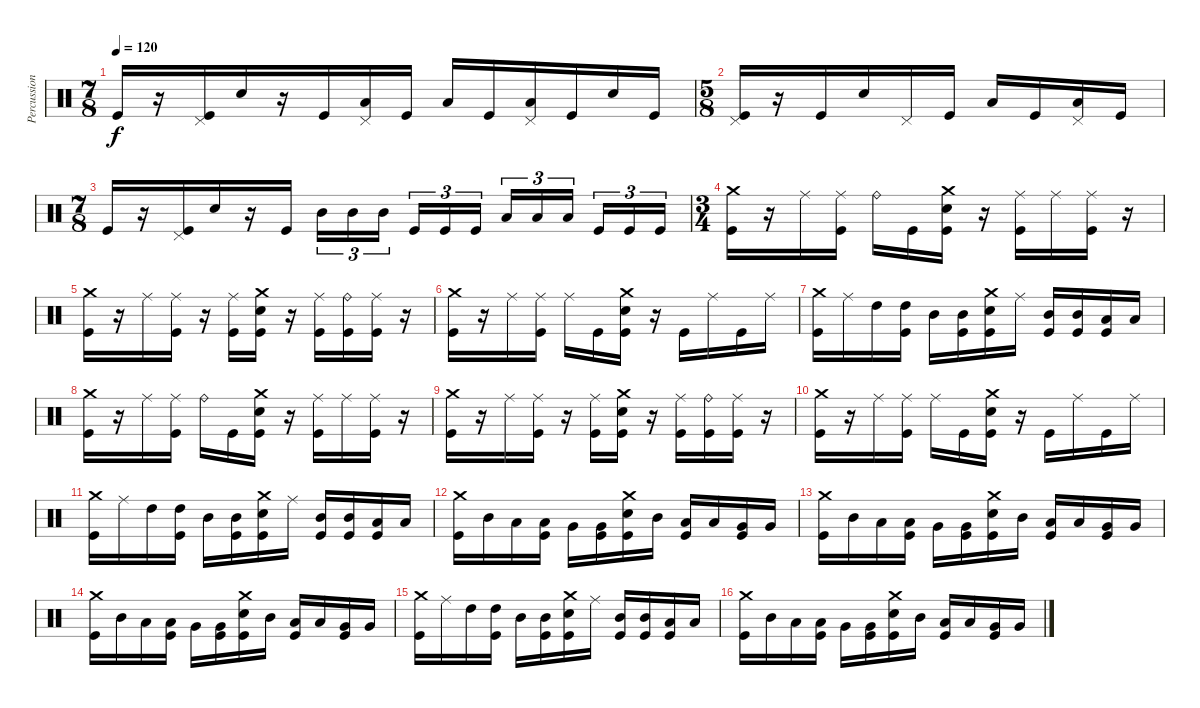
\track ("Percussion" "Percussion") {instrument percussion}
\staff {score}
\articulation defaults
\ts (7 8)
\tempo 120
\clef neutral
\ks c "Kick (hit)".16{dy f}
r.16 ("Pedal Hi-Hat (hit)" "Kick (hit)").16 "Electric Snare (hit)".16 r.16 "Kick (hit)".16 ("Pedal Hi-Hat (hit)" "Low Tom (hit)").16 "Kick (hit)".16 "Low Tom (hit)".16 "Kick (hit)".16 ("Pedal Hi-Hat (hit)" "Low Tom (hit)").16 "Kick (hit)".16 "Electric Snare (hit)".16 "Kick (hit)".16 |
\ts (5 8)
("Pedal Hi-Hat (hit)" "Kick (hit)").16 r.16 "Kick (hit)".16 "Electric Snare (hit)".16 "Pedal Hi-Hat (hit)".16 "Kick (hit)".16 "Low Tom (hit)".16 "Kick (hit)".16 ("Pedal Hi-Hat (hit)" "Low Tom (hit)").16 "Kick (hit)".16 |
\ts (7 8)
"Kick (hit)".16 r.16 ("Pedal Hi-Hat (hit)" "Kick (hit)").16 "Electric Snare (hit)".16 r.16 "Kick (hit)".16 "Mid Tom (hit)".16{tu (3 2)} "Mid Tom (hit)".16{tu (3 2)} "Mid Tom (hit)".16{tu (3 2)} "Kick (hit)".16{tu (3 2)} "Kick (hit)".16{tu (3 2)} "Kick (hit)".16{tu (3 2)} "Low Tom (hit)".16{tu (3 2)} "Low Tom (hit)".16{tu (3 2)} "Low Tom (hit)".16{tu (3 2)} "Kick (hit)".16{tu (3 2)} "Kick (hit)".16{tu (3 2)} "Kick (hit)".16{tu (3 2)} |
\ts (3 4)
("Crash medium (hit)" "Kick (hit)").16 r.16 "Ride (middle)".16 ("Ride (middle)" "Kick (hit)").16 "Ride (bell)".16 "Kick (hit)".16 ("Crash medium (hit)" "Electric Snare (hit)" "Kick (hit)").16 r.16 ("Ride (middle)" "Kick (hit)").16 "Ride (middle)".16 ("Ride (middle)" "Kick (hit)").16 r.16 |
("Crash medium (hit)" "Kick (hit)").16 r.16 "Ride (middle)".16 ("Ride (middle)" "Kick (hit)").16 r.16 ("Ride (middle)" "Kick (hit)").16 ("Crash medium (hit)" "Electric Snare (hit)" "Kick (hit)").16 r.16 ("Ride (middle)" "Kick (hit)").16 ("Ride (bell)" "Kick (hit)").16 ("Ride (middle)" "Kick (hit)").16 r.16 |
("Crash medium (hit)" "Kick (hit)").16 r.16 "Ride (middle)".16 ("Ride (middle)" "Kick (hit)").16 "Ride (middle)".16 "Kick (hit)".16 ("Crash medium (hit)" "Electric Snare (hit)" "Kick (hit)").16 r.16 "Kick (hit)".16 "Ride (middle)".16 "Kick (hit)".16 "Ride (middle)".16 |
("Crash medium (hit)" "Kick (hit)").16 "Ride (middle)".16 "High Tom (hit)".16 ("High Tom (hit)" "Kick (hit)").16 "Mid Tom (hit)".16 ("Mid Tom (hit)" "Kick (hit)").16 ("Crash medium (hit)" "Electric Snare (hit)" "Kick (hit)").16 "Ride (middle)".16 ("Mid Tom (hit)" "Kick (hit)").16 ("Mid Tom (hit)" "Kick (hit)").16 ("Low Tom (hit)" "Kick (hit)").16 "Low Tom (hit)".16 |
("Crash medium (hit)" "Kick (hit)").16 r.16 "Ride (middle)".16 ("Ride (middle)" "Kick (hit)").16 "Ride (bell)".16 "Kick (hit)".16 ("Crash medium (hit)" "Electric Snare (hit)" "Kick (hit)").16 r.16 ("Ride (middle)" "Kick (hit)").16 "Ride (middle)".16 ("Ride (middle)" "Kick (hit)").16 r.16 |
("Crash medium (hit)" "Kick (hit)").16 r.16 "Ride (middle)".16 ("Ride (middle)" "Kick (hit)").16 r.16 ("Ride (middle)" "Kick (hit)").16 ("Crash medium (hit)" "Electric Snare (hit)" "Kick (hit)").16 r.16 ("Ride (middle)" "Kick (hit)").16 ("Ride (bell)" "Kick (hit)").16 ("Ride (middle)" "Kick (hit)").16 r.16 |
("Crash medium (hit)" "Kick (hit)").16 r.16 "Ride (middle)".16 ("Ride (middle)" "Kick (hit)").16 "Ride (middle)".16 "Kick (hit)".16 ("Crash medium (hit)" "Electric Snare (hit)" "Kick (hit)").16 r.16 "Kick (hit)".16 "Ride (middle)".16 "Kick (hit)".16 "Ride (middle)".16 |
("Crash medium (hit)" "Kick (hit)").16 "Ride (middle)".16 "High Tom (hit)".16 ("High Tom (hit)" "Kick (hit)").16 "Mid Tom (hit)".16 ("Mid Tom (hit)" "Kick (hit)").16 ("Crash medium (hit)" "Electric Snare (hit)" "Kick (hit)").16 "Ride (middle)".16 ("Mid Tom (hit)" "Kick (hit)").16 ("Mid Tom (hit)" "Kick (hit)").16 ("Low Tom (hit)" "Kick (hit)").16 "Low Tom (hit)".16 |
("Crash medium (hit)" "Kick (hit)").16 "Mid Tom (hit)".16 "Low Tom (hit)".16 ("Low Tom (hit)" "Kick (hit)").16 "Very Low Tom (hit)".16 ("Very Low Tom (hit)" "Kick (hit)").16 ("Crash medium (hit)" "Electric Snare (hit)" "Kick (hit)").16 "Mid Tom (hit)".16 ("Low Tom (hit)" "Kick (hit)").16 "Low Tom (hit)".16 ("Very Low Tom (hit)" "Kick (hit)").16 "Very Low Tom (hit)".16 |
("Crash medium (hit)" "Kick (hit)").16 "Mid Tom (hit)".16 "Low Tom (hit)".16 ("Low Tom (hit)" "Kick (hit)").16 "Very Low Tom (hit)".16 ("Very Low Tom (hit)" "Kick (hit)").16 ("Crash medium (hit)" "Electric Snare (hit)" "Kick (hit)").16 "Mid Tom (hit)".16 ("Low Tom (hit)" "Kick (hit)").16 "Low Tom (hit)".16 ("Very Low Tom (hit)" "Kick (hit)").16 "Very Low Tom (hit)".16 |
("Crash medium (hit)" "Kick (hit)").16 "Mid Tom (hit)".16 "Low Tom (hit)".16 ("Low Tom (hit)" "Kick (hit)").16 "Very Low Tom (hit)".16 ("Very Low Tom (hit)" "Kick (hit)").16 ("Crash medium (hit)" "Electric Snare (hit)" "Kick (hit)").16 "Mid Tom (hit)".16 ("Low Tom (hit)" "Kick (hit)").16 "Low Tom (hit)".16 ("Very Low Tom (hit)" "Kick (hit)").16 "Very Low Tom (hit)".16 |
("Crash medium (hit)" "Kick (hit)").16 "Ride (middle)".16 "High Tom (hit)".16 ("High Tom (hit)" "Kick (hit)").16 "Mid Tom (hit)".16 ("Mid Tom (hit)" "Kick (hit)").16 ("Crash medium (hit)" "Electric Snare (hit)" "Kick (hit)").16 "Ride (middle)".16 ("Mid Tom (hit)" "Kick (hit)").16 ("Mid Tom (hit)" "Kick (hit)").16 ("Low Tom (hit)" "Kick (hit)").16 "Low Tom (hit)".16 |
("Crash medium (hit)" "Kick (hit)").16 "Mid Tom (hit)".16 "Low Tom (hit)".16 ("Low Tom (hit)" "Kick (hit)").16 "Very Low Tom (hit)".16 ("Very Low Tom (hit)" "Kick (hit)").16 ("Crash medium (hit)" "Electric Snare (hit)" "Kick (hit)").16 "Mid Tom (hit)".16 ("Low Tom (hit)" "Kick (hit)").16 "Low Tom (hit)".16 ("Very Low Tom (hit)" "Kick (hit)").16 "Very Low Tom (hit)".16
